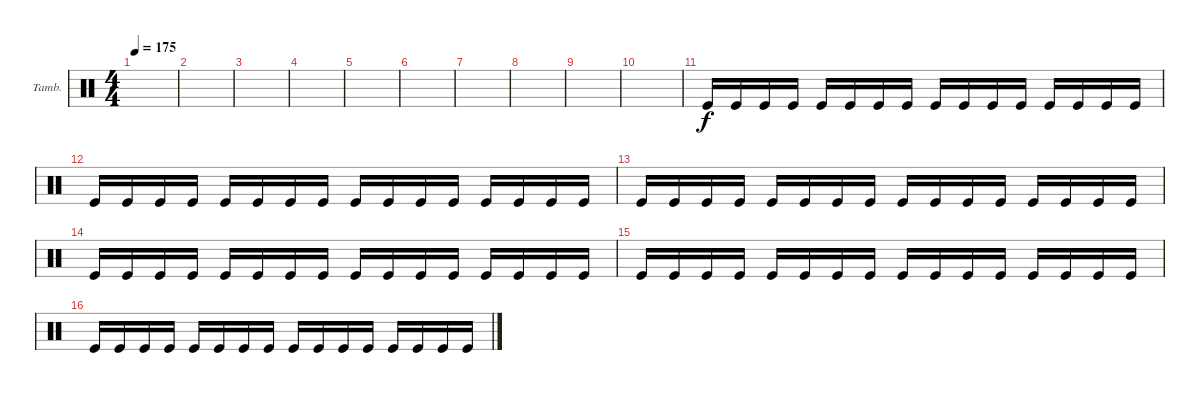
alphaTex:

\defaultSystemsLayout 4
\bracketExtendMode groupsimilarinstruments
\firstSystemTrackNameOrientation horizontal
\otherSystemsTrackNameOrientation horizontal
\track ("Tambourine" "Tamb.") {instrument percussion}
\staff {score}
\articulation defaults
\ts (4 4)
\tempo 175
\clef neutral
\scale
0.333333
\ks c
|
\scale
0.333333 |
\scale
0.333333 |
\scale
0.333333 |
\scale
0.333333 |
\scale
0.333333 |
\scale
0.333333 |
\scale
0.333333 |
\scale
0.333333 |
\scale
0.333333 |
\scale
0.333333 "Kick (hit)".16 "Kick (hit)".16 "Kick (hit)".16 "Kick (hit)".16 "Kick (hit)".16 "Kick (hit)".16 "Kick (hit)".16 "Kick (hit)".16 "Kick (hit)".16 "Kick (hit)".16 "Kick (hit)".16 "Kick (hit)".16 "Kick (hit)".16 "Kick (hit)".16 "Kick (hit)".16 "Kick (hit)".16 |
\scale
0.333333 "Kick (hit)".16 "Kick (hit)".16 "Kick (hit)".16 "Kick (hit)".16 "Kick (hit)".16 "Kick (hit)".16 "Kick (hit)".16 "Kick (hit)".16 "Kick (hit)".16 "Kick (hit)".16 "Kick (hit)".16 "Kick (hit)".16 "Kick (hit)".16 "Kick (hit)".16 "Kick (hit)".16 "Kick (hit)".16 |
\scale
0.333333 "Kick (hit)".16 "Kick (hit)".16 "Kick (hit)".16 "Kick (hit)".16 "Kick (hit)".16 "Kick (hit)".16 "Kick (hit)".16 "Kick (hit)".16 "Kick (hit)".16 "Kick (hit)".16 "Kick (hit)".16 "Kick (hit)".16 "Kick (hit)".16 "Kick (hit)".16 "Kick (hit)".16 "Kick (hit)".16 |
\scale
0.333333 "Kick (hit)".16 "Kick (hit)".16 "Kick (hit)".16 "Kick (hit)".16 "Kick (hit)".16 "Kick (hit)".16 "Kick (hit)".16 "Kick (hit)".16 "Kick (hit)".16 "Kick (hit)".16 "Kick (hit)".16 "Kick (hit)".16 "Kick (hit)".16 "Kick (hit)".16 "Kick (hit)".16 "Kick (hit)".16 |
\scale
0.333333 "Kick (hit)".16 "Kick (hit)".16 "Kick (hit)".16 "Kick (hit)".16 "Kick (hit)".16 "Kick (hit)".16 "Kick (hit)".16 "Kick (hit)".16 "Kick (hit)".16 "Kick (hit)".16 "Kick (hit)".16 "Kick (hit)".16 "Kick (hit)".16 "Kick (hit)".16 "Kick (hit)".16 "Kick (hit)".16 |
\scale
0.333333 "Kick (hit)".16 "Kick (hit)".16 "Kick (hit)".16 "Kick (hit)".16 "Kick (hit)".16 "Kick (hit)".16 "Kick (hit)".16 "Kick (hit)".16 "Kick (hit)".16 "Kick (hit)".16 "Kick (hit)".16 "Kick (hit)".16 "Kick (hit)".16 "Kick (hit)".16 "Kick (hit)".16 "Kick (hit)".16
